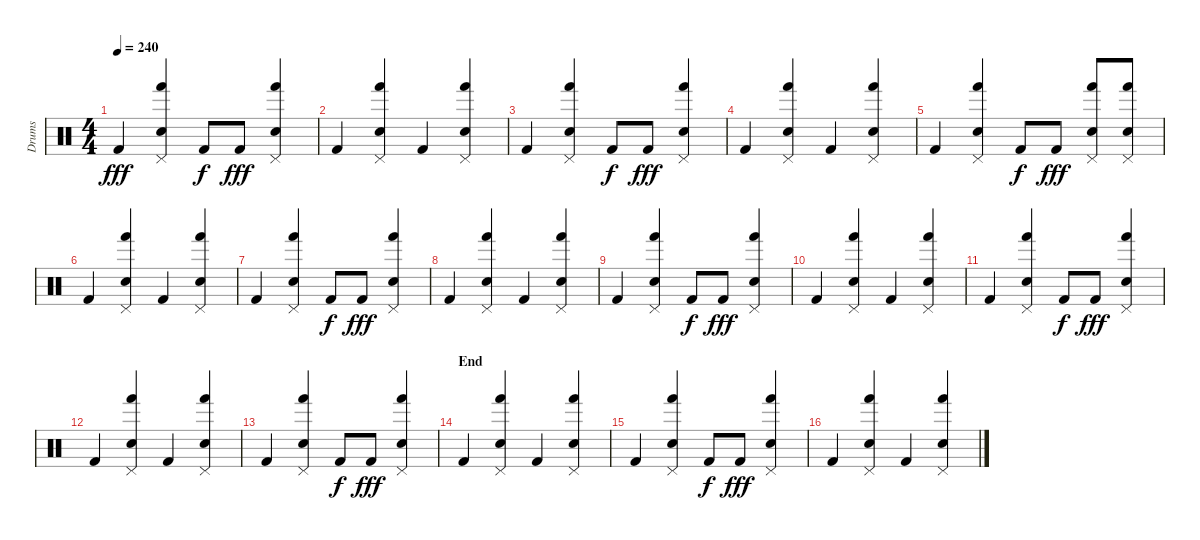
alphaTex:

\track ("Drums" "Drums") {instrument percussion}
\staff {score}
\articulation defaults
\ts (4 4)
\tempo 240
\clef neutral
\ks c "Kick (hit) 2".4{dy fff}
("Pedal Hi-Hat (hit)" "Hand (hit)" "Electric Snare (hit)").4 "Kick (hit) 2".8{dy f} "Kick (hit) 2".8{dy fff} ("Pedal Hi-Hat (hit)" "Hand (hit)" "Electric Snare (hit)").4 |
"Kick (hit) 2".4 ("Pedal Hi-Hat (hit)" "Hand (hit)" "Electric Snare (hit)").4 "Kick (hit) 2".4 ("Pedal Hi-Hat (hit)" "Hand (hit)" "Electric Snare (hit)").4 |
"Kick (hit) 2".4 ("Pedal Hi-Hat (hit)" "Hand (hit)" "Electric Snare (hit)").4 "Kick (hit) 2".8{dy f} "Kick (hit) 2".8{dy fff} ("Pedal Hi-Hat (hit)" "Hand (hit)" "Electric Snare (hit)").4 |
"Kick (hit) 2".4 ("Pedal Hi-Hat (hit)" "Hand (hit)" "Electric Snare (hit)").4 "Kick (hit) 2".4 ("Pedal Hi-Hat (hit)" "Hand (hit)" "Electric Snare (hit)").4 |
"Kick (hit) 2".4 ("Pedal Hi-Hat (hit)" "Hand (hit)" "Electric Snare (hit)").4 "Kick (hit) 2".8{dy f} "Kick (hit) 2".8{dy fff} ("Pedal Hi-Hat (hit)" "Hand (hit)" "Electric Snare (hit)").8 ("Pedal Hi-Hat (hit)" "Hand (hit)" "Electric Snare (hit)").8 |
"Kick (hit) 2".4 ("Pedal Hi-Hat (hit)" "Hand (hit)" "Electric Snare (hit)").4 "Kick (hit) 2".4 ("Pedal Hi-Hat (hit)" "Hand (hit)" "Electric Snare (hit)").4 |
"Kick (hit) 2".4 ("Pedal Hi-Hat (hit)" "Hand (hit)" "Electric Snare (hit)").4 "Kick (hit) 2".8{dy f} "Kick (hit) 2".8{dy fff} ("Pedal Hi-Hat (hit)" "Hand (hit)" "Electric Snare (hit)").4 |
"Kick (hit) 2".4 ("Pedal Hi-Hat (hit)" "Hand (hit)" "Electric Snare (hit)").4 "Kick (hit) 2".4 ("Pedal Hi-Hat (hit)" "Hand (hit)" "Electric Snare (hit)").4 |
"Kick (hit) 2".4 ("Pedal Hi-Hat (hit)" "Hand (hit)" "Electric Snare (hit)").4 "Kick (hit) 2".8{dy f} "Kick (hit) 2".8{dy fff} ("Pedal Hi-Hat (hit)" "Hand (hit)" "Electric Snare (hit)").4 |
"Kick (hit) 2".4 ("Pedal Hi-Hat (hit)" "Hand (hit)" "Electric Snare (hit)").4 "Kick (hit) 2".4 ("Pedal Hi-Hat (hit)" "Hand (hit)" "Electric Snare (hit)").4 |
"Kick (hit) 2".4 ("Pedal Hi-Hat (hit)" "Hand (hit)" "Electric Snare (hit)").4 "Kick (hit) 2".8{dy f} "Kick (hit) 2".8{dy fff} ("Pedal Hi-Hat (hit)" "Hand (hit)" "Electric Snare (hit)").4 |
"Kick (hit) 2".4 ("Pedal Hi-Hat (hit)" "Hand (hit)" "Electric Snare (hit)").4 "Kick (hit) 2".4 ("Pedal Hi-Hat (hit)" "Hand (hit)" "Electric Snare (hit)").4 |
"Kick (hit) 2".4 ("Pedal Hi-Hat (hit)" "Hand (hit)" "Electric Snare (hit)").4 "Kick (hit) 2".8{dy f} "Kick (hit) 2".8{dy fff} ("Pedal Hi-Hat (hit)" "Hand (hit)" "Electric Snare (hit)").4 |
\section ("" "End")
"Kick (hit) 2".4 ("Pedal Hi-Hat (hit)" "Hand (hit)" "Electric Snare (hit)").4 "Kick (hit) 2".4 ("Pedal Hi-Hat (hit)" "Hand (hit)" "Electric Snare (hit)").4 |
"Kick (hit) 2".4 ("Pedal Hi-Hat (hit)" "Hand (hit)" "Electric Snare (hit)").4 "Kick (hit) 2".8{dy f} "Kick (hit) 2".8{dy fff} ("Pedal Hi-Hat (hit)" "Hand (hit)" "Electric Snare (hit)").4 |
"Kick (hit) 2".4 ("Pedal Hi-Hat (hit)" "Hand (hit)" "Electric Snare (hit)").4 "Kick (hit) 2".4 ("Pedal Hi-Hat (hit)" "Hand (hit)" "Electric Snare (hit)").4
